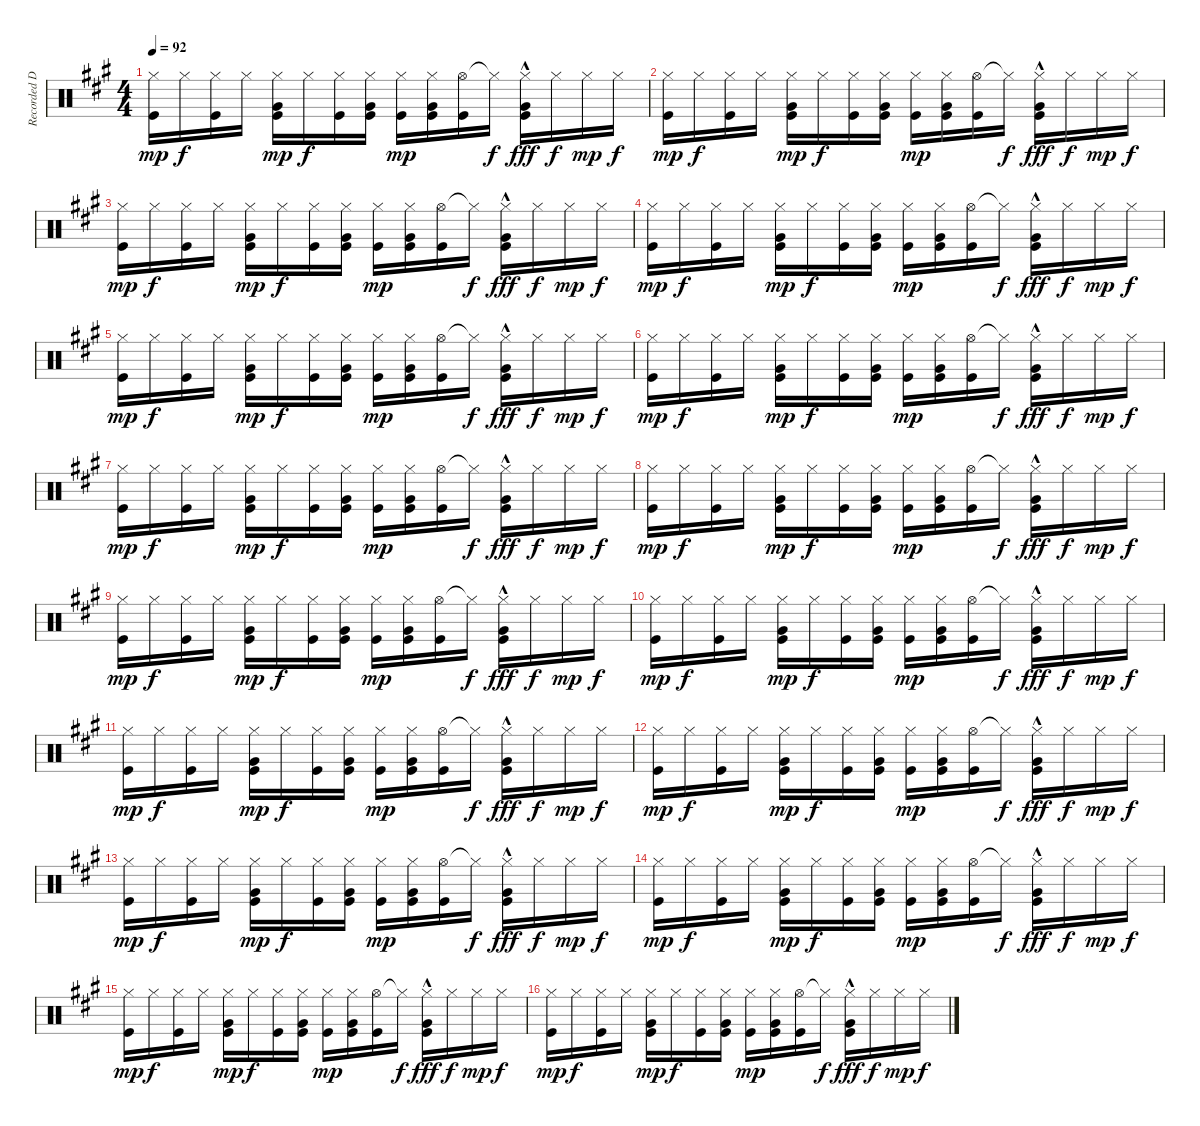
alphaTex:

\track ("Recorded Durms" "Recorded D") {instrument percussion}
\staff {score}
\articulation defaults
\ts (4 4)
\tempo 92
\clef neutral
\ks a
("Hi-Hat (closed)" "Kick (hit)").16{dy mp} "Hi-Hat (closed)".16{dy f} ("Hi-Hat (closed)" "Kick (hit)").16 "Hi-Hat (closed)".16 ("Hi-Hat (closed)" "Very Low Tom (hit)" "Kick (hit)").16{dy mp} "Hi-Hat (closed)".16{dy f} ("Hi-Hat (closed)" "Kick (hit)").16 ("Hi-Hat (closed)" "Very Low Tom (hit)" "Kick (hit)").16 ("Hi-Hat (closed)" "Kick (hit)").16{dy mp} ("Hi-Hat (closed)" "Very Low Tom (hit)" "Kick (hit)").16 ("Hi-Hat (open)" "Kick (hit)").16 "Hi-Hat (closed)"{t}.16{dy f} ("Hi-Hat (closed)" "Very Low Tom (hit)"{hac} "Kick (hit)").16{dy fff} "Hi-Hat (closed)".16{dy f} "Hi-Hat (closed)".16{dy mp} "Hi-Hat (closed)".16{dy f} |
("Hi-Hat (closed)" "Kick (hit)").16{dy mp} "Hi-Hat (closed)".16{dy f} ("Hi-Hat (closed)" "Kick (hit)").16 "Hi-Hat (closed)".16 ("Hi-Hat (closed)" "Very Low Tom (hit)" "Kick (hit)").16{dy mp} "Hi-Hat (closed)".16{dy f} ("Hi-Hat (closed)" "Kick (hit)").16 ("Hi-Hat (closed)" "Very Low Tom (hit)" "Kick (hit)").16 ("Hi-Hat (closed)" "Kick (hit)").16{dy mp} ("Hi-Hat (closed)" "Very Low Tom (hit)" "Kick (hit)").16 ("Hi-Hat (open)" "Kick (hit)").16 "Hi-Hat (closed)"{t}.16{dy f} ("Hi-Hat (closed)" "Very Low Tom (hit)"{hac} "Kick (hit)").16{dy fff} "Hi-Hat (closed)".16{dy f} "Hi-Hat (closed)".16{dy mp} "Hi-Hat (closed)".16{dy f} |
("Hi-Hat (closed)" "Kick (hit)").16{dy mp} "Hi-Hat (closed)".16{dy f} ("Hi-Hat (closed)" "Kick (hit)").16 "Hi-Hat (closed)".16 ("Hi-Hat (closed)" "Very Low Tom (hit)" "Kick (hit)").16{dy mp} "Hi-Hat (closed)".16{dy f} ("Hi-Hat (closed)" "Kick (hit)").16 ("Hi-Hat (closed)" "Very Low Tom (hit)" "Kick (hit)").16 ("Hi-Hat (closed)" "Kick (hit)").16{dy mp} ("Hi-Hat (closed)" "Very Low Tom (hit)" "Kick (hit)").16 ("Hi-Hat (open)" "Kick (hit)").16 "Hi-Hat (closed)"{t}.16{dy f} ("Hi-Hat (closed)" "Very Low Tom (hit)"{hac} "Kick (hit)").16{dy fff} "Hi-Hat (closed)".16{dy f} "Hi-Hat (closed)".16{dy mp} "Hi-Hat (closed)".16{dy f} |
("Hi-Hat (closed)" "Kick (hit)").16{dy mp} "Hi-Hat (closed)".16{dy f} ("Hi-Hat (closed)" "Kick (hit)").16 "Hi-Hat (closed)".16 ("Hi-Hat (closed)" "Very Low Tom (hit)" "Kick (hit)").16{dy mp} "Hi-Hat (closed)".16{dy f} ("Hi-Hat (closed)" "Kick (hit)").16 ("Hi-Hat (closed)" "Very Low Tom (hit)" "Kick (hit)").16 ("Hi-Hat (closed)" "Kick (hit)").16{dy mp} ("Hi-Hat (closed)" "Very Low Tom (hit)" "Kick (hit)").16 ("Hi-Hat (open)" "Kick (hit)").16 "Hi-Hat (closed)"{t}.16{dy f} ("Hi-Hat (closed)" "Very Low Tom (hit)"{hac} "Kick (hit)").16{dy fff} "Hi-Hat (closed)".16{dy f} "Hi-Hat (closed)".16{dy mp} "Hi-Hat (closed)".16{dy f} |
("Hi-Hat (closed)" "Kick (hit)").16{dy mp} "Hi-Hat (closed)".16{dy f} ("Hi-Hat (closed)" "Kick (hit)").16 "Hi-Hat (closed)".16 ("Hi-Hat (closed)" "Very Low Tom (hit)" "Kick (hit)").16{dy mp} "Hi-Hat (closed)".16{dy f} ("Hi-Hat (closed)" "Kick (hit)").16 ("Hi-Hat (closed)" "Very Low Tom (hit)" "Kick (hit)").16 ("Hi-Hat (closed)" "Kick (hit)").16{dy mp} ("Hi-Hat (closed)" "Very Low Tom (hit)" "Kick (hit)").16 ("Hi-Hat (open)" "Kick (hit)").16 "Hi-Hat (closed)"{t}.16{dy f} ("Hi-Hat (closed)" "Very Low Tom (hit)"{hac} "Kick (hit)").16{dy fff} "Hi-Hat (closed)".16{dy f} "Hi-Hat (closed)".16{dy mp} "Hi-Hat (closed)".16{dy f} |
("Hi-Hat (closed)" "Kick (hit)").16{dy mp} "Hi-Hat (closed)".16{dy f} ("Hi-Hat (closed)" "Kick (hit)").16 "Hi-Hat (closed)".16 ("Hi-Hat (closed)" "Very Low Tom (hit)" "Kick (hit)").16{dy mp} "Hi-Hat (closed)".16{dy f} ("Hi-Hat (closed)" "Kick (hit)").16 ("Hi-Hat (closed)" "Very Low Tom (hit)" "Kick (hit)").16 ("Hi-Hat (closed)" "Kick (hit)").16{dy mp} ("Hi-Hat (closed)" "Very Low Tom (hit)" "Kick (hit)").16 ("Hi-Hat (open)" "Kick (hit)").16 "Hi-Hat (closed)"{t}.16{dy f} ("Hi-Hat (closed)" "Very Low Tom (hit)"{hac} "Kick (hit)").16{dy fff} "Hi-Hat (closed)".16{dy f} "Hi-Hat (closed)".16{dy mp} "Hi-Hat (closed)".16{dy f} |
("Hi-Hat (closed)" "Kick (hit)").16{dy mp} "Hi-Hat (closed)".16{dy f} ("Hi-Hat (closed)" "Kick (hit)").16 "Hi-Hat (closed)".16 ("Hi-Hat (closed)" "Very Low Tom (hit)" "Kick (hit)").16{dy mp} "Hi-Hat (closed)".16{dy f} ("Hi-Hat (closed)" "Kick (hit)").16 ("Hi-Hat (closed)" "Very Low Tom (hit)" "Kick (hit)").16 ("Hi-Hat (closed)" "Kick (hit)").16{dy mp} ("Hi-Hat (closed)" "Very Low Tom (hit)" "Kick (hit)").16 ("Hi-Hat (open)" "Kick (hit)").16 "Hi-Hat (closed)"{t}.16{dy f} ("Hi-Hat (closed)" "Very Low Tom (hit)"{hac} "Kick (hit)").16{dy fff} "Hi-Hat (closed)".16{dy f} "Hi-Hat (closed)".16{dy mp} "Hi-Hat (closed)".16{dy f} |
("Hi-Hat (closed)" "Kick (hit)").16{dy mp} "Hi-Hat (closed)".16{dy f} ("Hi-Hat (closed)" "Kick (hit)").16 "Hi-Hat (closed)".16 ("Hi-Hat (closed)" "Very Low Tom (hit)" "Kick (hit)").16{dy mp} "Hi-Hat (closed)".16{dy f} ("Hi-Hat (closed)" "Kick (hit)").16 ("Hi-Hat (closed)" "Very Low Tom (hit)" "Kick (hit)").16 ("Hi-Hat (closed)" "Kick (hit)").16{dy mp} ("Hi-Hat (closed)" "Very Low Tom (hit)" "Kick (hit)").16 ("Hi-Hat (open)" "Kick (hit)").16 "Hi-Hat (closed)"{t}.16{dy f} ("Hi-Hat (closed)" "Very Low Tom (hit)"{hac} "Kick (hit)").16{dy fff} "Hi-Hat (closed)".16{dy f} "Hi-Hat (closed)".16{dy mp} "Hi-Hat (closed)".16{dy f} |
("Hi-Hat (closed)" "Kick (hit)").16{dy mp} "Hi-Hat (closed)".16{dy f} ("Hi-Hat (closed)" "Kick (hit)").16 "Hi-Hat (closed)".16 ("Hi-Hat (closed)" "Very Low Tom (hit)" "Kick (hit)").16{dy mp} "Hi-Hat (closed)".16{dy f} ("Hi-Hat (closed)" "Kick (hit)").16 ("Hi-Hat (closed)" "Very Low Tom (hit)" "Kick (hit)").16 ("Hi-Hat (closed)" "Kick (hit)").16{dy mp} ("Hi-Hat (closed)" "Very Low Tom (hit)" "Kick (hit)").16 ("Hi-Hat (open)" "Kick (hit)").16 "Hi-Hat (closed)"{t}.16{dy f} ("Hi-Hat (closed)" "Very Low Tom (hit)"{hac} "Kick (hit)").16{dy fff} "Hi-Hat (closed)".16{dy f} "Hi-Hat (closed)".16{dy mp} "Hi-Hat (closed)".16{dy f} |
("Hi-Hat (closed)" "Kick (hit)").16{dy mp} "Hi-Hat (closed)".16{dy f} ("Hi-Hat (closed)" "Kick (hit)").16 "Hi-Hat (closed)".16 ("Hi-Hat (closed)" "Very Low Tom (hit)" "Kick (hit)").16{dy mp} "Hi-Hat (closed)".16{dy f} ("Hi-Hat (closed)" "Kick (hit)").16 ("Hi-Hat (closed)" "Very Low Tom (hit)" "Kick (hit)").16 ("Hi-Hat (closed)" "Kick (hit)").16{dy mp} ("Hi-Hat (closed)" "Very Low Tom (hit)" "Kick (hit)").16 ("Hi-Hat (open)" "Kick (hit)").16 "Hi-Hat (closed)"{t}.16{dy f} ("Hi-Hat (closed)" "Very Low Tom (hit)"{hac} "Kick (hit)").16{dy fff} "Hi-Hat (closed)".16{dy f} "Hi-Hat (closed)".16{dy mp} "Hi-Hat (closed)".16{dy f} |
("Hi-Hat (closed)" "Kick (hit)").16{dy mp} "Hi-Hat (closed)".16{dy f} ("Hi-Hat (closed)" "Kick (hit)").16 "Hi-Hat (closed)".16 ("Hi-Hat (closed)" "Very Low Tom (hit)" "Kick (hit)").16{dy mp} "Hi-Hat (closed)".16{dy f} ("Hi-Hat (closed)" "Kick (hit)").16 ("Hi-Hat (closed)" "Very Low Tom (hit)" "Kick (hit)").16 ("Hi-Hat (closed)" "Kick (hit)").16{dy mp} ("Hi-Hat (closed)" "Very Low Tom (hit)" "Kick (hit)").16 ("Hi-Hat (open)" "Kick (hit)").16 "Hi-Hat (closed)"{t}.16{dy f} ("Hi-Hat (closed)" "Very Low Tom (hit)"{hac} "Kick (hit)").16{dy fff} "Hi-Hat (closed)".16{dy f} "Hi-Hat (closed)".16{dy mp} "Hi-Hat (closed)".16{dy f} |
("Hi-Hat (closed)" "Kick (hit)").16{dy mp} "Hi-Hat (closed)".16{dy f} ("Hi-Hat (closed)" "Kick (hit)").16 "Hi-Hat (closed)".16 ("Hi-Hat (closed)" "Very Low Tom (hit)" "Kick (hit)").16{dy mp} "Hi-Hat (closed)".16{dy f} ("Hi-Hat (closed)" "Kick (hit)").16 ("Hi-Hat (closed)" "Very Low Tom (hit)" "Kick (hit)").16 ("Hi-Hat (closed)" "Kick (hit)").16{dy mp} ("Hi-Hat (closed)" "Very Low Tom (hit)" "Kick (hit)").16 ("Hi-Hat (open)" "Kick (hit)").16 "Hi-Hat (closed)"{t}.16{dy f} ("Hi-Hat (closed)" "Very Low Tom (hit)"{hac} "Kick (hit)").16{dy fff} "Hi-Hat (closed)".16{dy f} "Hi-Hat (closed)".16{dy mp} "Hi-Hat (closed)".16{dy f} |
("Hi-Hat (closed)" "Kick (hit)").16{dy mp} "Hi-Hat (closed)".16{dy f} ("Hi-Hat (closed)" "Kick (hit)").16 "Hi-Hat (closed)".16 ("Hi-Hat (closed)" "Very Low Tom (hit)" "Kick (hit)").16{dy mp} "Hi-Hat (closed)".16{dy f} ("Hi-Hat (closed)" "Kick (hit)").16 ("Hi-Hat (closed)" "Very Low Tom (hit)" "Kick (hit)").16 ("Hi-Hat (closed)" "Kick (hit)").16{dy mp} ("Hi-Hat (closed)" "Very Low Tom (hit)" "Kick (hit)").16 ("Hi-Hat (open)" "Kick (hit)").16 "Hi-Hat (closed)"{t}.16{dy f} ("Hi-Hat (closed)" "Very Low Tom (hit)"{hac} "Kick (hit)").16{dy fff} "Hi-Hat (closed)".16{dy f} "Hi-Hat (closed)".16{dy mp} "Hi-Hat (closed)".16{dy f} |
("Hi-Hat (closed)" "Kick (hit)").16{dy mp} "Hi-Hat (closed)".16{dy f} ("Hi-Hat (closed)" "Kick (hit)").16 "Hi-Hat (closed)".16 ("Hi-Hat (closed)" "Very Low Tom (hit)" "Kick (hit)").16{dy mp} "Hi-Hat (closed)".16{dy f} ("Hi-Hat (closed)" "Kick (hit)").16 ("Hi-Hat (closed)" "Very Low Tom (hit)" "Kick (hit)").16 ("Hi-Hat (closed)" "Kick (hit)").16{dy mp} ("Hi-Hat (closed)" "Very Low Tom (hit)" "Kick (hit)").16 ("Hi-Hat (open)" "Kick (hit)").16 "Hi-Hat (closed)"{t}.16{dy f} ("Hi-Hat (closed)" "Very Low Tom (hit)"{hac} "Kick (hit)").16{dy fff} "Hi-Hat (closed)".16{dy f} "Hi-Hat (closed)".16{dy mp} "Hi-Hat (closed)".16{dy f} |
("Hi-Hat (closed)" "Kick (hit)").16{dy mp} "Hi-Hat (closed)".16{dy f} ("Hi-Hat (closed)" "Kick (hit)").16 "Hi-Hat (closed)".16 ("Hi-Hat (closed)" "Very Low Tom (hit)" "Kick (hit)").16{dy mp} "Hi-Hat (closed)".16{dy f} ("Hi-Hat (closed)" "Kick (hit)").16 ("Hi-Hat (closed)" "Very Low Tom (hit)" "Kick (hit)").16 ("Hi-Hat (closed)" "Kick (hit)").16{dy mp} ("Hi-Hat (closed)" "Very Low Tom (hit)" "Kick (hit)").16 ("Hi-Hat (open)" "Kick (hit)").16 "Hi-Hat (closed)"{t}.16{dy f} ("Hi-Hat (closed)" "Very Low Tom (hit)"{hac} "Kick (hit)").16{dy fff} "Hi-Hat (closed)".16{dy f} "Hi-Hat (closed)".16{dy mp} "Hi-Hat (closed)".16{dy f} |
("Hi-Hat (closed)" "Kick (hit)").16{dy mp} "Hi-Hat (closed)".16{dy f} ("Hi-Hat (closed)" "Kick (hit)").16 "Hi-Hat (closed)".16 ("Hi-Hat (closed)" "Very Low Tom (hit)" "Kick (hit)").16{dy mp} "Hi-Hat (closed)".16{dy f} ("Hi-Hat (closed)" "Kick (hit)").16 ("Hi-Hat (closed)" "Very Low Tom (hit)" "Kick (hit)").16 ("Hi-Hat (closed)" "Kick (hit)").16{dy mp} ("Hi-Hat (closed)" "Very Low Tom (hit)" "Kick (hit)").16 ("Hi-Hat (open)" "Kick (hit)").16 "Hi-Hat (closed)"{t}.16{dy f} ("Hi-Hat (closed)" "Very Low Tom (hit)"{hac} "Kick (hit)").16{dy fff} "Hi-Hat (closed)".16{dy f} "Hi-Hat (closed)".16{dy mp} "Hi-Hat (closed)".16{dy f}
